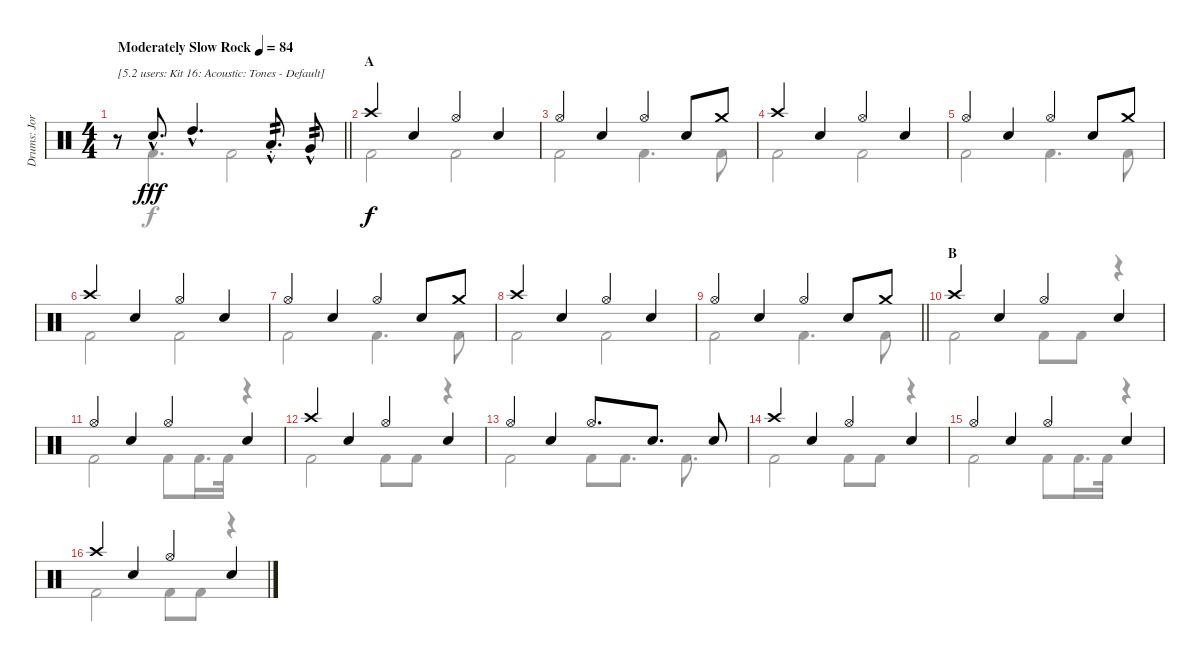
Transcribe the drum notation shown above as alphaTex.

\track ("Drums: Jorg" "Drums: Jor") {instrument percussion}
\staff {score}
\articulation defaults
\voice
\ts (4 4)
\tempo (84 "Moderately Slow Rock")
\clef neutral
\barLineRight lightlight
\ks c
r.8{txt "[5.2 users: Kit 16: Acoustic: Tones - Default]" dy fff} "Snare (hit) 2"{hac}.8{d} "High Tom (hit)"{hac}.4{d} "Low Tom (hit)"{hac st}.8{d tp 2} "Very Low Tom (hit)"{hac}.8{tp 2} |
\section ("" "A")
"Crash high (hit)".4{dy f} "Snare (hit) 2".4 "Hi-Hat (open)".4 "Snare (hit) 2".4 |
"Hi-Hat (open)".4 "Snare (hit) 2".4 "Hi-Hat (open)".4 "Snare (hit) 2".8 "Crash medium (hit)".8 |
"Crash high (hit)".4 "Snare (hit) 2".4 "Hi-Hat (open)".4 "Snare (hit) 2".4 |
"Hi-Hat (open)".4 "Snare (hit) 2".4 "Hi-Hat (open)".4 "Snare (hit) 2".8 "Crash medium (hit)".8 |
"Crash high (hit)".4 "Snare (hit) 2".4 "Hi-Hat (open)".4 "Snare (hit) 2".4 |
"Hi-Hat (open)".4 "Snare (hit) 2".4 "Hi-Hat (open)".4 "Snare (hit) 2".8 "Crash medium (hit)".8 |
"Crash high (hit)".4 "Snare (hit) 2".4 "Hi-Hat (open)".4 "Snare (hit) 2".4 |
\barLineRight lightlight "Hi-Hat (open)".4 "Snare (hit) 2".4 "Hi-Hat (open)".4 "Snare (hit) 2".8 "Crash medium (hit)".8
|
\section ("" "B")
"Crash high (hit)".4 "Snare (hit) 2".4 "Hi-Hat (open)".4 "Snare (hit) 2".4 |
"Hi-Hat (open)".4 "Snare (hit) 2".4 "Hi-Hat (open)".4 "Snare (hit) 2".4 |
"Crash high (hit)".4 "Snare (hit) 2".4 "Hi-Hat (open)".4 "Snare (hit) 2".4 |
"Hi-Hat (open)".4 "Snare (hit) 2".4 "Hi-Hat (open)".8{d} "Snare (hit) 2".8{d} "Snare (hit) 2".8 |
"Crash high (hit)".4 "Snare (hit) 2".4 "Hi-Hat (open)".4 "Snare (hit) 2".4 |
"Hi-Hat (open)".4 "Snare (hit) 2".4 "Hi-Hat (open)".4 "Snare (hit) 2".4 |
"Crash high (hit)".4 "Snare (hit) 2".4 "Hi-Hat (open)".4 "Snare (hit) 2".4
\voice
\clef neutral
\ottava regular
\simile none
\barLineRight lightlight
\ks c
r.8{dy f} "Kick (hit) 2".4{d} "Kick (hit) 2".2 |
"Kick (hit) 2".2 "Kick (hit) 2".2 |
"Kick (hit) 2".2 "Kick (hit) 2".4{d} "Kick (hit) 2".8 |
"Kick (hit) 2".2 "Kick (hit) 2".2 |
"Kick (hit) 2".2 "Kick (hit) 2".4{d} "Kick (hit) 2".8 |
"Kick (hit) 2".2 "Kick (hit) 2".2 |
"Kick (hit) 2".2 "Kick (hit) 2".4{d} "Kick (hit) 2".8 |
"Kick (hit) 2".2 "Kick (hit) 2".2 |
\barLineRight lightlight "Kick (hit) 2".2 "Kick (hit) 2".4{d} "Kick (hit) 2".8
|
"Kick (hit) 2".2 "Kick (hit) 2".8 "Kick (hit) 2".8 r.4 |
"Kick (hit) 2".2 "Kick (hit) 2".8 "Kick (hit) 2".16{d} "Kick (hit) 2".32 r.4 |
"Kick (hit) 2".2 "Kick (hit) 2".8 "Kick (hit) 2".8 r.4 |
"Kick (hit) 2".2 "Kick (hit) 2".8 "Kick (hit) 2".8{d} "Kick (hit) 2".8{d} |
"Kick (hit) 2".2 "Kick (hit) 2".8 "Kick (hit) 2".8 r.4 |
"Kick (hit) 2".2 "Kick (hit) 2".8 "Kick (hit) 2".16{d} "Kick (hit) 2".32 r.4 |
"Kick (hit) 2".2 "Kick (hit) 2".8 "Kick (hit) 2".8 r.4
